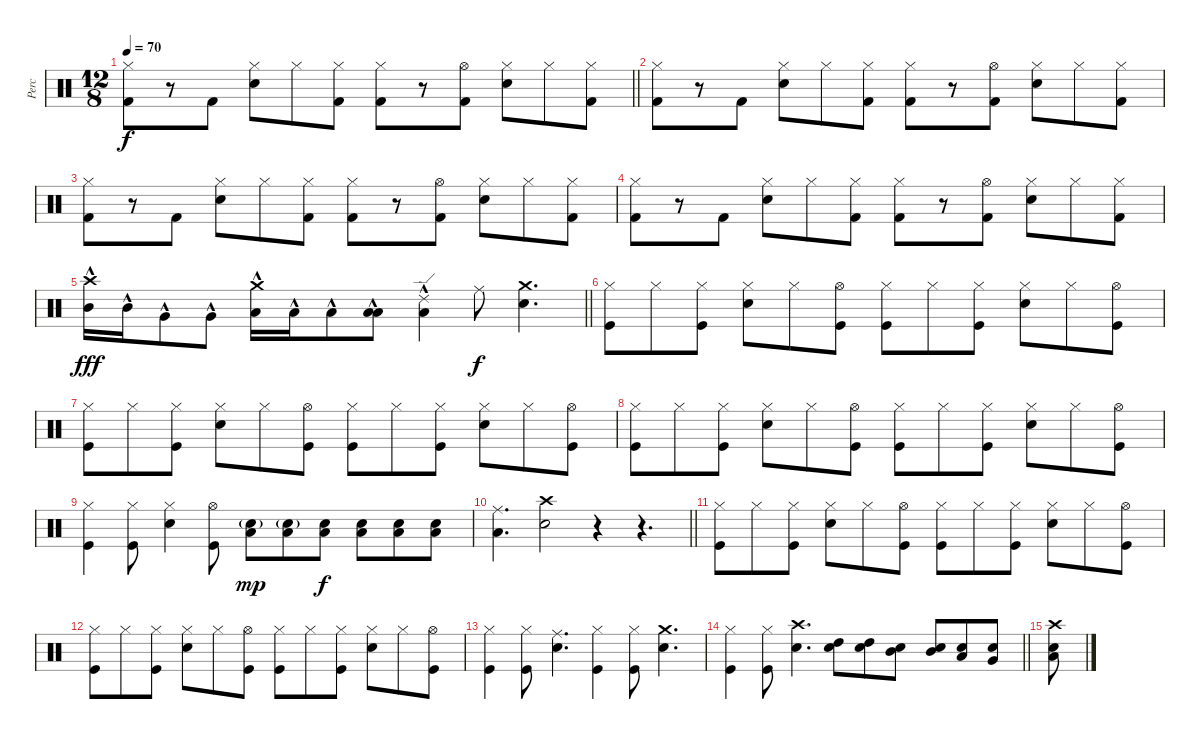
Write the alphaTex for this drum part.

\track ("Perc" "Perc") {instrument percussion}
\staff {score}
\articulation defaults
\ts (12 8)
\tempo 70
\clef neutral
\barLineRight lightlight
\ks c
("Kick (hit) 2" "Hi-Hat (closed)").8{dy f} r.8 "Kick (hit) 2".8 ("Hi-Hat (closed)" "Electric Snare (hit)").8 "Hi-Hat (closed)".8 ("Hi-Hat (closed)" "Kick (hit) 2").8 ("Hi-Hat (closed)" "Kick (hit) 2").8 r.8 ("Hi-Hat (open)" "Kick (hit) 2").8 ("Hi-Hat (closed)" "Electric Snare (hit)").8 "Hi-Hat (closed)".8 ("Hi-Hat (closed)" "Kick (hit) 2").8 |
("Kick (hit) 2" "Hi-Hat (closed)").8 r.8 "Kick (hit) 2".8 ("Hi-Hat (closed)" "Electric Snare (hit)").8 "Hi-Hat (closed)".8 ("Hi-Hat (closed)" "Kick (hit) 2").8 ("Hi-Hat (closed)" "Kick (hit) 2").8 r.8 ("Hi-Hat (open)" "Kick (hit) 2").8 ("Hi-Hat (closed)" "Electric Snare (hit)").8 "Hi-Hat (closed)".8 ("Hi-Hat (closed)" "Kick (hit) 2").8 |
("Kick (hit) 2" "Hi-Hat (closed)").8 r.8 "Kick (hit) 2".8 ("Hi-Hat (closed)" "Electric Snare (hit)").8 "Hi-Hat (closed)".8 ("Hi-Hat (closed)" "Kick (hit) 2").8 ("Hi-Hat (closed)" "Kick (hit) 2").8 r.8 ("Hi-Hat (open)" "Kick (hit) 2").8 ("Hi-Hat (closed)" "Electric Snare (hit)").8 "Hi-Hat (closed)".8 ("Hi-Hat (closed)" "Kick (hit) 2").8 |
("Kick (hit) 2" "Hi-Hat (closed)").8 r.8 "Kick (hit) 2".8 ("Hi-Hat (closed)" "Electric Snare (hit)").8 "Hi-Hat (closed)".8 ("Hi-Hat (closed)" "Kick (hit) 2").8 ("Hi-Hat (closed)" "Kick (hit) 2").8 r.8 ("Hi-Hat (open)" "Kick (hit) 2").8 ("Hi-Hat (closed)" "Electric Snare (hit)").8 "Hi-Hat (closed)".8 ("Hi-Hat (closed)" "Kick (hit) 2").8 |
\barLineRight lightlight
("Mid Tom (hit)"{hac} "Crash high (hit)").16{dy fff} "Mid Tom (hit)"{hac}.16 "Very Low Tom (hit)"{hac}.8 "Very Low Tom (hit)"{hac}.8 ("Low Tom (hit)"{hac} "Crash medium (hit)").16 "Low Tom (hit)"{hac}.16 "Low Floor Tom (hit)"{hac}.8 ("Low Floor Tom (hit)"{hac} "Low Floor Tom (hit)").8 ("Low Floor Tom (hit)"{hac} "Ride (edge) 2").4 "Ride (middle)".8{dy f} ("Electric Snare (hit)" "Crash medium (hit)").4{d} |
("Hi-Hat (closed)" "Kick (hit)").8 "Hi-Hat (closed)".8 ("Hi-Hat (closed)" "Kick (hit)").8 ("Hi-Hat (closed)" "Snare (hit) 2").8 "Hi-Hat (closed)".8 ("Hi-Hat (open)" "Kick (hit)").8 ("Hi-Hat (closed)" "Kick (hit)").8 "Hi-Hat (closed)".8 ("Hi-Hat (closed)" "Kick (hit)").8 ("Hi-Hat (closed)" "Snare (hit) 2").8 "Hi-Hat (closed)".8 ("Hi-Hat (open)" "Kick (hit)").8 |
("Hi-Hat (closed)" "Kick (hit)").8 "Hi-Hat (closed)".8 ("Hi-Hat (closed)" "Kick (hit)").8 ("Hi-Hat (closed)" "Snare (hit) 2").8 "Hi-Hat (closed)".8 ("Hi-Hat (open)" "Kick (hit)").8 ("Hi-Hat (closed)" "Kick (hit)").8 "Hi-Hat (closed)".8 ("Hi-Hat (closed)" "Kick (hit)").8 ("Hi-Hat (closed)" "Snare (hit) 2").8 "Hi-Hat (closed)".8 ("Hi-Hat (open)" "Kick (hit)").8 |
("Hi-Hat (closed)" "Kick (hit)").8 "Hi-Hat (closed)".8 ("Hi-Hat (closed)" "Kick (hit)").8 ("Hi-Hat (closed)" "Snare (hit) 2").8 "Hi-Hat (closed)".8 ("Hi-Hat (open)" "Kick (hit)").8 ("Hi-Hat (closed)" "Kick (hit)").8 "Hi-Hat (closed)".8 ("Hi-Hat (closed)" "Kick (hit)").8 ("Hi-Hat (closed)" "Snare (hit) 2").8 "Hi-Hat (closed)".8 ("Hi-Hat (open)" "Kick (hit)").8 |
("Hi-Hat (closed)" "Kick (hit)").4 ("Hi-Hat (closed)" "Kick (hit)").8 ("Hi-Hat (closed)" "Snare (hit) 2").4 ("Hi-Hat (open)" "Kick (hit)").8 ("Snare (hit) 2"{g} "Low Tom (hit)").8{dy mp} ("Snare (hit) 2"{g} "Low Tom (hit)").8 ("Snare (hit) 2" "Low Tom (hit)").8{dy f} ("Snare (hit) 2" "Low Tom (hit)").8 ("Snare (hit) 2" "Low Tom (hit)").8 ("Snare (hit) 2" "Low Tom (hit)").8 |
\barLineRight lightlight
("Low Tom (hit)" "Ride (middle)").4{d} ("Snare (hit) 2" "Crash high (hit)").2 r.4 r.4{d} |
("Hi-Hat (closed)" "Kick (hit)").8 "Hi-Hat (closed)".8 ("Hi-Hat (closed)" "Kick (hit)").8 ("Hi-Hat (closed)" "Snare (hit) 2").8 "Hi-Hat (closed)".8 ("Hi-Hat (open)" "Kick (hit)").8 ("Hi-Hat (closed)" "Kick (hit)").8 "Hi-Hat (closed)".8 ("Hi-Hat (closed)" "Kick (hit)").8 ("Hi-Hat (closed)" "Snare (hit) 2").8 "Hi-Hat (closed)".8 ("Hi-Hat (open)" "Kick (hit)").8 |
("Hi-Hat (closed)" "Kick (hit)").8 "Hi-Hat (closed)".8 ("Hi-Hat (closed)" "Kick (hit)").8 ("Hi-Hat (closed)" "Snare (hit) 2").8 "Hi-Hat (closed)".8 ("Hi-Hat (open)" "Kick (hit)").8 ("Hi-Hat (closed)" "Kick (hit)").8 "Hi-Hat (closed)".8 ("Hi-Hat (closed)" "Kick (hit)").8 ("Hi-Hat (closed)" "Snare (hit) 2").8 "Hi-Hat (closed)".8 ("Hi-Hat (open)" "Kick (hit)").8 |
("Hi-Hat (closed)" "Kick (hit)").4 ("Hi-Hat (closed)" "Kick (hit)").8 ("Ride (middle)" "Snare (hit) 2").4{d} ("Hi-Hat (closed)" "Kick (hit)").4 ("Hi-Hat (closed)" "Kick (hit)").8 ("Crash medium (hit)" "Snare (hit) 2").4{d} |
\barLineRight lightlight
("Hi-Hat (closed)" "Kick (hit)").4 ("Hi-Hat (closed)" "Kick (hit)").8 ("Crash high (hit)" "Snare (hit) 2").4{d} ("Snare (hit) 2" "High Tom (hit)").8 ("Snare (hit) 2" "High Tom (hit)").8 ("Snare (hit) 2" "Mid Tom (hit)").8 ("Snare (hit) 2" "Mid Tom (hit)").8 ("Snare (hit) 2" "Low Tom (hit)").8 ("Snare (hit) 2" "Very Low Tom (hit)").8 |
("Crash high (hit)" "Snare (hit) 2" "Low Floor Tom (hit)").8
